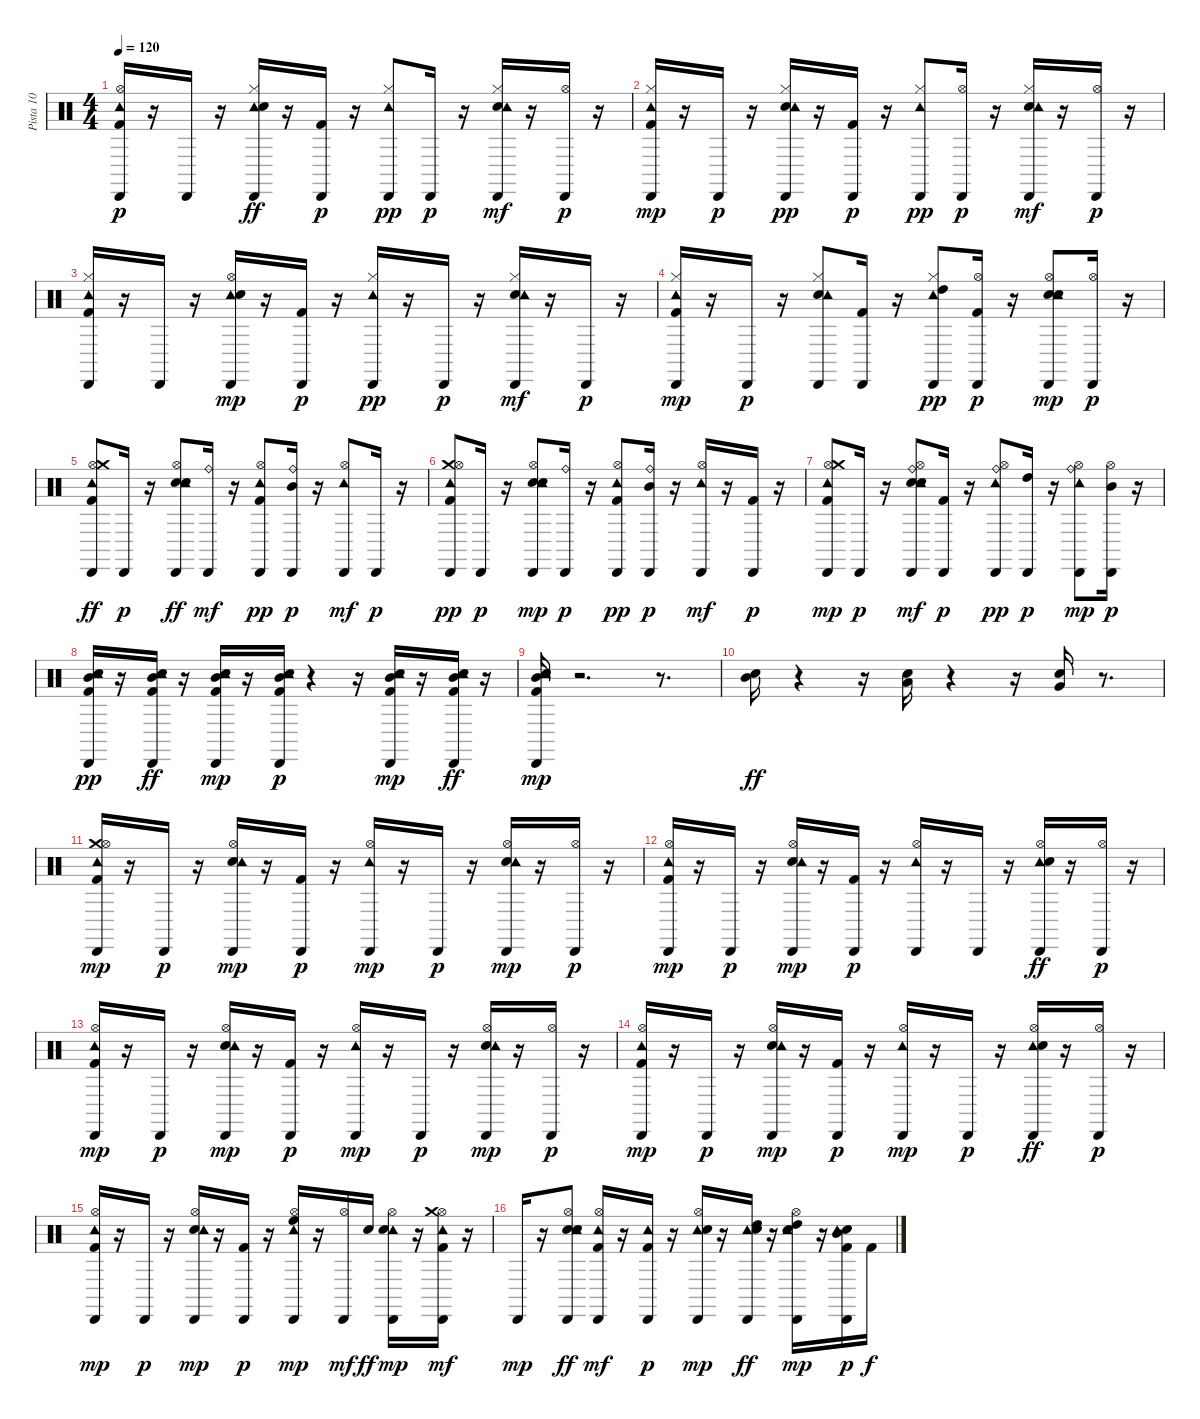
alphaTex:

\track ("Pista 10" "Pista 10") {instrument percussion}
\staff {score}
\articulation defaults
\ts (4 4)
\tempo 120
\clef neutral
\ks c
("Kick (hit) 2" "Hi-Hat (open)" "Cabasa (hit)" "Tambourine (hit)").16{dy p} r.16 "Cabasa (hit)".16 r.16 ("Hi-Hat (closed)" "Cabasa (hit)" "Tambourine (hit)" "Electric Snare (hit)").16{dy ff} r.16 ("Cabasa (hit)" "Kick (hit) 2").16{dy p} r.16 ("Cabasa (hit)" "Hi-Hat (closed)" "Tambourine (hit)").8{dy pp} "Cabasa (hit)".16{dy p} r.16 ("Hi-Hat (closed)" "Electric Snare (hit)" "Cabasa (hit)" "Tambourine (hit)").16{dy mf} r.16 ("Hi-Hat (open)" "Cabasa (hit)").16{dy p} r.16 |
("Tambourine (hit)" "Kick (hit) 2" "Hi-Hat (closed)" "Cabasa (hit)").16{dy mp} r.16 "Cabasa (hit)".16{dy p} r.16 ("Electric Snare (hit)" "Hi-Hat (closed)" "Cabasa (hit)" "Tambourine (hit)").16{dy pp} r.16 ("Kick (hit) 2" "Cabasa (hit)").16{dy p} r.16 ("Cabasa (hit)" "Hi-Hat (closed)" "Tambourine (hit)").8{dy pp} ("Hi-Hat (open)" "Cabasa (hit)").16{dy p} r.16 ("Cabasa (hit)" "Electric Snare (hit)" "Hi-Hat (closed)" "Tambourine (hit)").16{dy mf} r.16 ("Hi-Hat (open)" "Cabasa (hit)").16{dy p} r.16 |
("Cabasa (hit)" "Tambourine (hit)" "Kick (hit) 2" "Hi-Hat (closed)").16 r.16 "Cabasa (hit)".16 r.16 ("Tambourine (hit)" "Electric Snare (hit)" "Hi-Hat (open)" "Cabasa (hit)").16{dy mp} r.16 ("Cabasa (hit)" "Kick (hit) 2").16{dy p} r.16 ("Hi-Hat (closed)" "Cabasa (hit)" "Tambourine (hit)").16{dy pp} r.16 "Cabasa (hit)".16{dy p} r.16 ("Electric Snare (hit)" "Hi-Hat (closed)" "Cabasa (hit)" "Tambourine (hit)").16{dy mf} r.16 "Cabasa (hit)".16{dy p} r.16 |
("Tambourine (hit)" "Cabasa (hit)" "Hi-Hat (closed)" "Kick (hit) 2").16{dy mp} r.16 "Cabasa (hit)".16{dy p} r.16 ("Electric Snare (hit)" "Hi-Hat (closed)" "Cabasa (hit)" "Tambourine (hit)").8 ("Kick (hit) 2" "Cabasa (hit)").16 r.16 ("Hi-Hat (closed)" "High Tom (hit)" "Cabasa (hit)" "Tambourine (hit)").8{dy pp} ("Hi-Hat (open)" "Cabasa (hit)" "Kick (hit) 2").16{dy p} r.16 ("Electric Snare (hit)" "Cabasa (hit)" "Electric Snare (hit)" "Hi-Hat (open)" "Tambourine (hit)").8{dy mp} ("Hi-Hat (open)" "Cabasa (hit)").16{dy p} r.16 |
("Cabasa (hit)" "Tambourine (hit)" "Kick (hit) 2" "Hi-Hat (open)" "Crash medium (hit)").8{dy ff} "Cabasa (hit)".16{dy p} r.16 ("Electric Snare (hit)" "Tambourine (hit)" "Cabasa (hit)" "Electric Snare (hit)" "Hi-Hat (open)").8{dy ff} ("Cabasa (hit)" "Ride (bell)").16{dy mf} r.16 ("Cabasa (hit)" "Tambourine (hit)" "Kick (hit) 2" "Hi-Hat (open)").8{dy pp} ("Ride (bell)" "Mid Tom (hit)" "Cabasa (hit)").16{dy p} r.16 ("Cabasa (hit)" "Tambourine (hit)" "Hi-Hat (open)").8{dy mf} "Cabasa (hit)".16{dy p} r.16 |
("Crash medium (hit)" "Cabasa (hit)" "Tambourine (hit)" "Hi-Hat (open)" "Kick (hit) 2").8{dy pp} "Cabasa (hit)".16{dy p} r.16 ("Electric Snare (hit)" "Hi-Hat (open)" "Electric Snare (hit)" "Tambourine (hit)" "Cabasa (hit)").8{dy mp} ("Ride (bell)" "Cabasa (hit)").16{dy p} r.16 ("Kick (hit) 2" "Hi-Hat (open)" "Cabasa (hit)" "Tambourine (hit)").8{dy pp} ("Mid Tom (hit)" "Ride (bell)" "Cabasa (hit)").16{dy p} r.16 ("Cabasa (hit)" "Hi-Hat (open)" "Tambourine (hit)").16{dy mf} r.16 ("Kick (hit) 2" "Cabasa (hit)").16{dy p} r.16 |
("Tambourine (hit)" "Kick (hit) 2" "Hi-Hat (open)" "Crash medium (hit)" "Cabasa (hit)").8{dy mp} "Cabasa (hit)".16{dy p} r.16 ("Electric Snare (hit)" "Hi-Hat (open)" "Cabasa (hit)" "Tambourine (hit)" "Electric Snare (hit)" "Ride (bell)").8{dy mf} ("Kick (hit) 2" "Cabasa (hit)").16{dy p} r.16 ("Ride (bell)" "Hi-Hat (open)" "Cabasa (hit)" "Tambourine (hit)").8{dy pp} ("High Tom (hit)" "Cabasa (hit)").16{dy p} r.16 ("Ride (bell)" "Tambourine (hit)" "Cabasa (hit)" "Hi-Hat (open)").8{dy mp} ("Hi-Hat (open)" "Mid Tom (hit)" "Cabasa (hit)").16{dy p} r.16 |
("Kick (hit) 2" "Electric Snare (hit)" "Mid Tom (hit)" "Cabasa (hit)" "Tambourine (hit)").16{dy pp} r.16 ("Kick (hit) 2" "Mid Tom (hit)" "Tambourine (hit)" "Cabasa (hit)" "Electric Snare (hit)").16{dy ff} r.16 ("Kick (hit) 2" "Electric Snare (hit)" "Mid Tom (hit)" "Cabasa (hit)" "Tambourine (hit)").16{dy mp} r.16 ("Kick (hit) 2" "Electric Snare (hit)" "Mid Tom (hit)" "Tambourine (hit)" "Cabasa (hit)").16{dy p} r.4 r.16 ("Kick (hit) 2" "Electric Snare (hit)" "Mid Tom (hit)" "Cabasa (hit)" "Tambourine (hit)").16{dy mp} r.16 ("Tambourine (hit)" "Cabasa (hit)" "Kick (hit) 2" "Electric Snare (hit)" "Mid Tom (hit)").16{dy ff} r.16 |
("Tambourine (hit)" "Kick (hit) 2" "Electric Snare (hit)" "Mid Tom (hit)" "Cabasa (hit)").16{dy mp} r.2{d} r.8{d} |
("Electric Snare (hit)" "Mid Tom (hit)").16{dy ff} r.4 r.16 ("Electric Snare (hit)" "Low Tom (hit)").16 r.4 r.16 ("Electric Snare (hit)" "Very Low Tom (hit)").16 r.8{d} |
("Crash medium (hit)" "Tambourine (hit)" "Kick (hit) 2" "Hi-Hat (open)" "Cabasa (hit)").16{dy mp} r.16 "Cabasa (hit)".16{dy p} r.16 ("Electric Snare (hit)" "Cabasa (hit)" "Hi-Hat (open)" "Tambourine (hit)").16{dy mp} r.16 ("Cabasa (hit)" "Kick (hit) 2").16{dy p} r.16 ("Cabasa (hit)" "Hi-Hat (open)" "Tambourine (hit)").16{dy mp} r.16 "Cabasa (hit)".16{dy p} r.16 ("Electric Snare (hit)" "Hi-Hat (open)" "Tambourine (hit)" "Cabasa (hit)").16{dy mp} r.16 ("Hi-Hat (open)" "Cabasa (hit)").16{dy p} r.16 |
("Tambourine (hit)" "Kick (hit) 2" "Cabasa (hit)" "Hi-Hat (open)").16{dy mp} r.16 "Cabasa (hit)".16{dy p} r.16 ("Electric Snare (hit)" "Hi-Hat (open)" "Tambourine (hit)" "Cabasa (hit)").16{dy mp} r.16 ("Kick (hit) 2" "Cabasa (hit)").16{dy p} r.16 ("Cabasa (hit)" "Hi-Hat (open)" "Tambourine (hit)").16 r.16 "Cabasa (hit)".16 r.16 ("Hi-Hat (open)" "Tambourine (hit)" "Cabasa (hit)" "Electric Snare (hit)").16{dy ff} r.16 ("Hi-Hat (open)" "Cabasa (hit)").16{dy p} r.16 |
("Cabasa (hit)" "Kick (hit) 2" "Hi-Hat (open)" "Tambourine (hit)").16{dy mp} r.16 "Cabasa (hit)".16{dy p} r.16 ("Electric Snare (hit)" "Hi-Hat (open)" "Tambourine (hit)" "Cabasa (hit)").16{dy mp} r.16 ("Cabasa (hit)" "Kick (hit) 2").16{dy p} r.16 ("Hi-Hat (open)" "Cabasa (hit)" "Tambourine (hit)").16{dy mp} r.16 "Cabasa (hit)".16{dy p} r.16 ("Electric Snare (hit)" "Hi-Hat (open)" "Tambourine (hit)" "Cabasa (hit)").16{dy mp} r.16 ("Hi-Hat (open)" "Cabasa (hit)").16{dy p} r.16 |
("Hi-Hat (open)" "Cabasa (hit)" "Tambourine (hit)" "Kick (hit) 2").16{dy mp} r.16 "Cabasa (hit)".16{dy p} r.16 ("Electric Snare (hit)" "Tambourine (hit)" "Cabasa (hit)" "Hi-Hat (open)").16{dy mp} r.16 ("Kick (hit) 2" "Cabasa (hit)").16{dy p} r.16 ("Cabasa (hit)" "Hi-Hat (open)" "Tambourine (hit)").16{dy mp} r.16 "Cabasa (hit)".16{dy p} r.16 ("Cabasa (hit)" "Hi-Hat (open)" "Tambourine (hit)" "Electric Snare (hit)").16{dy ff} r.16 ("Hi-Hat (open)" "Cabasa (hit)").16{dy p} r.16 |
("Kick (hit) 2" "Hi-Hat (open)" "Tambourine (hit)" "Cabasa (hit)").16{dy mp} r.16 "Cabasa (hit)".16{dy p} r.16 ("Electric Snare (hit)" "Hi-Hat (open)" "Tambourine (hit)" "Cabasa (hit)").16{dy mp} r.16 ("Cabasa (hit)" "Kick (hit) 2").16{dy p} r.16 ("High Floor Tom (hit)" "Hi-Hat (open)" "Tambourine (hit)" "Cabasa (hit)").16{dy mp} r.16 ("Cabasa (hit)" "Hi-Hat (open)").16{dy mf} "Electric Snare (hit)".16{dy ff} ("Tambourine (hit)" "Electric Snare (hit)" "Hi-Hat (open)" "Cabasa (hit)").16{dy mp} r.16 ("Kick (hit) 2" "Cabasa (hit)" "Hi-Hat (open)" "Crash medium (hit)" "Tambourine (hit)").16{dy mf} r.16 |
"Cabasa (hit)".16{dy mp} r.16 ("Electric Snare (hit)" "Hi-Hat (open)" "Tambourine (hit)" "Cabasa (hit)" "Electric Snare (hit)").8{dy ff} ("Kick (hit) 2" "Hi-Hat (open)" "Cabasa (hit)" "Tambourine (hit)").16{dy mf} r.16 ("Kick (hit) 2" "Tambourine (hit)" "Cabasa (hit)").16{dy p} r.16 ("Tambourine (hit)" "Electric Snare (hit)" "Hi-Hat (open)" "Cabasa (hit)").16{dy mp} r.16 ("High Tom (hit)" "Tambourine (hit)" "Cabasa (hit)" "Electric Snare (hit)").16{dy ff} r.16 ("Tambourine (hit)" "Hi-Hat (open)" "High Tom (hit)" "Electric Snare (hit)" "Cabasa (hit)").16{dy mp} r.16 ("Electric Snare (hit)" "Mid Tom (hit)" "Tambourine (hit)" "Kick (hit) 2" "Cabasa (hit)").16{dy p} "Kick (hit) 2".16{dy f}
